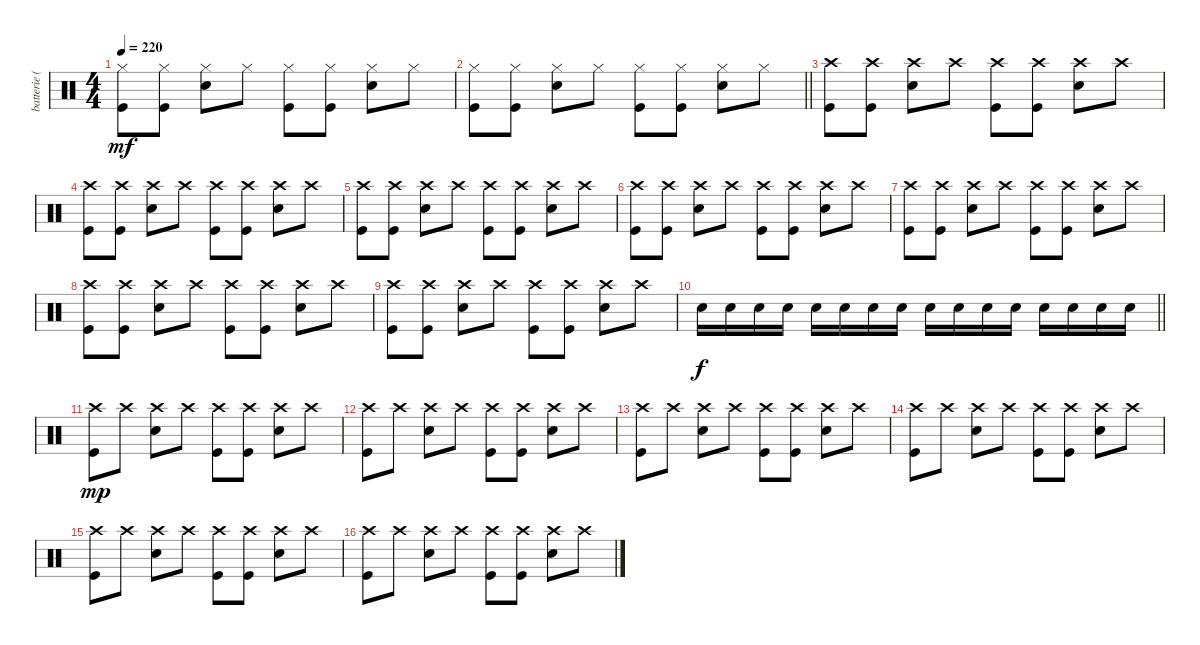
\track ("batterie ( Guillaume ) " "batterie (") {instrument percussion}
\staff {score}
\articulation defaults
\ts (4 4)
\tempo 220
\clef neutral
\ks c
("Hi-Hat (closed)" "Kick (hit)").8{dy mf} ("Hi-Hat (closed)" "Kick (hit)").8 ("Hi-Hat (closed)" "Snare (hit) 2").8 "Hi-Hat (closed)".8 ("Hi-Hat (closed)" "Kick (hit)").8 ("Hi-Hat (closed)" "Kick (hit)").8 ("Hi-Hat (closed)" "Snare (hit) 2").8 "Hi-Hat (closed)".8 |
\barLineRight lightlight
("Hi-Hat (closed)" "Kick (hit)").8 ("Hi-Hat (closed)" "Kick (hit)").8 ("Hi-Hat (closed)" "Snare (hit) 2").8 "Hi-Hat (closed)".8 ("Hi-Hat (closed)" "Kick (hit)").8 ("Hi-Hat (closed)" "Kick (hit)").8 ("Hi-Hat (closed)" "Snare (hit) 2").8 "Hi-Hat (closed)".8 |
("Crash high (hit)" "Kick (hit)").8 ("Crash high (hit)" "Kick (hit)").8 ("Crash high (hit)" "Snare (hit) 2").8 "Crash high (hit)".8 ("Crash high (hit)" "Kick (hit)").8 ("Crash high (hit)" "Kick (hit)").8 ("Crash high (hit)" "Snare (hit) 2").8 "Crash high (hit)".8 |
("Crash high (hit)" "Kick (hit)").8 ("Crash high (hit)" "Kick (hit)").8 ("Crash high (hit)" "Snare (hit) 2").8 "Crash high (hit)".8 ("Crash high (hit)" "Kick (hit)").8 ("Crash high (hit)" "Kick (hit)").8 ("Crash high (hit)" "Snare (hit) 2").8 "Crash high (hit)".8 |
("Crash high (hit)" "Kick (hit)").8 ("Crash high (hit)" "Kick (hit)").8 ("Crash high (hit)" "Snare (hit) 2").8 "Crash high (hit)".8 ("Crash high (hit)" "Kick (hit)").8 ("Crash high (hit)" "Kick (hit)").8 ("Crash high (hit)" "Snare (hit) 2").8 "Crash high (hit)".8 |
("Crash high (hit)" "Kick (hit)").8 ("Crash high (hit)" "Kick (hit)").8 ("Crash high (hit)" "Snare (hit) 2").8 "Crash high (hit)".8 ("Crash high (hit)" "Kick (hit)").8 ("Crash high (hit)" "Kick (hit)").8 ("Crash high (hit)" "Snare (hit) 2").8 "Crash high (hit)".8 |
("Crash high (hit)" "Kick (hit)").8 ("Crash high (hit)" "Kick (hit)").8 ("Crash high (hit)" "Snare (hit) 2").8 "Crash high (hit)".8 ("Crash high (hit)" "Kick (hit)").8 ("Crash high (hit)" "Kick (hit)").8 ("Crash high (hit)" "Snare (hit) 2").8 "Crash high (hit)".8 |
("Crash high (hit)" "Kick (hit)").8 ("Crash high (hit)" "Kick (hit)").8 ("Crash high (hit)" "Snare (hit) 2").8 "Crash high (hit)".8 ("Crash high (hit)" "Kick (hit)").8 ("Crash high (hit)" "Kick (hit)").8 ("Crash high (hit)" "Snare (hit) 2").8 "Crash high (hit)".8 |
("Crash high (hit)" "Kick (hit)").8 ("Crash high (hit)" "Kick (hit)").8 ("Crash high (hit)" "Snare (hit) 2").8 "Crash high (hit)".8 ("Crash high (hit)" "Kick (hit)").8 ("Crash high (hit)" "Kick (hit)").8 ("Crash high (hit)" "Snare (hit) 2").8 "Crash high (hit)".8 |
\barLineRight lightlight "Snare (hit) 2".16{dy f} "Snare (hit) 2".16 "Snare (hit) 2".16 "Snare (hit) 2".16 "Snare (hit) 2".16 "Snare (hit) 2".16 "Snare (hit) 2".16 "Snare (hit) 2".16 "Snare (hit) 2".16 "Snare (hit) 2".16 "Snare (hit) 2".16 "Snare (hit) 2".16 "Snare (hit) 2".16 "Snare (hit) 2".16 "Snare (hit) 2".16 "Snare (hit) 2".16
|
("Crash high (hit)" "Kick (hit)").8{dy mp} "Crash high (hit)".8 ("Crash high (hit)" "Snare (hit) 2").8 "Crash high (hit)".8 ("Crash high (hit)" "Kick (hit)").8 ("Crash high (hit)" "Kick (hit)").8 ("Crash high (hit)" "Snare (hit) 2").8 "Crash high (hit)".8 |
("Crash high (hit)" "Kick (hit)").8 "Crash high (hit)".8 ("Crash high (hit)" "Snare (hit) 2").8 "Crash high (hit)".8 ("Crash high (hit)" "Kick (hit)").8 ("Crash high (hit)" "Kick (hit)").8 ("Crash high (hit)" "Snare (hit) 2").8 "Crash high (hit)".8 |
("Crash high (hit)" "Kick (hit)").8 "Crash high (hit)".8 ("Crash high (hit)" "Snare (hit) 2").8 "Crash high (hit)".8 ("Crash high (hit)" "Kick (hit)").8 ("Crash high (hit)" "Kick (hit)").8 ("Crash high (hit)" "Snare (hit) 2").8 "Crash high (hit)".8 |
("Crash high (hit)" "Kick (hit)").8 "Crash high (hit)".8 ("Crash high (hit)" "Snare (hit) 2").8 "Crash high (hit)".8 ("Crash high (hit)" "Kick (hit)").8 ("Crash high (hit)" "Kick (hit)").8 ("Crash high (hit)" "Snare (hit) 2").8 "Crash high (hit)".8 |
("Crash high (hit)" "Kick (hit)").8 "Crash high (hit)".8 ("Crash high (hit)" "Snare (hit) 2").8 "Crash high (hit)".8 ("Crash high (hit)" "Kick (hit)").8 ("Crash high (hit)" "Kick (hit)").8 ("Crash high (hit)" "Snare (hit) 2").8 "Crash high (hit)".8 |
("Crash high (hit)" "Kick (hit)").8 "Crash high (hit)".8 ("Crash high (hit)" "Snare (hit) 2").8 "Crash high (hit)".8 ("Crash high (hit)" "Kick (hit)").8 ("Crash high (hit)" "Kick (hit)").8 ("Crash high (hit)" "Snare (hit) 2").8 "Crash high (hit)".8
